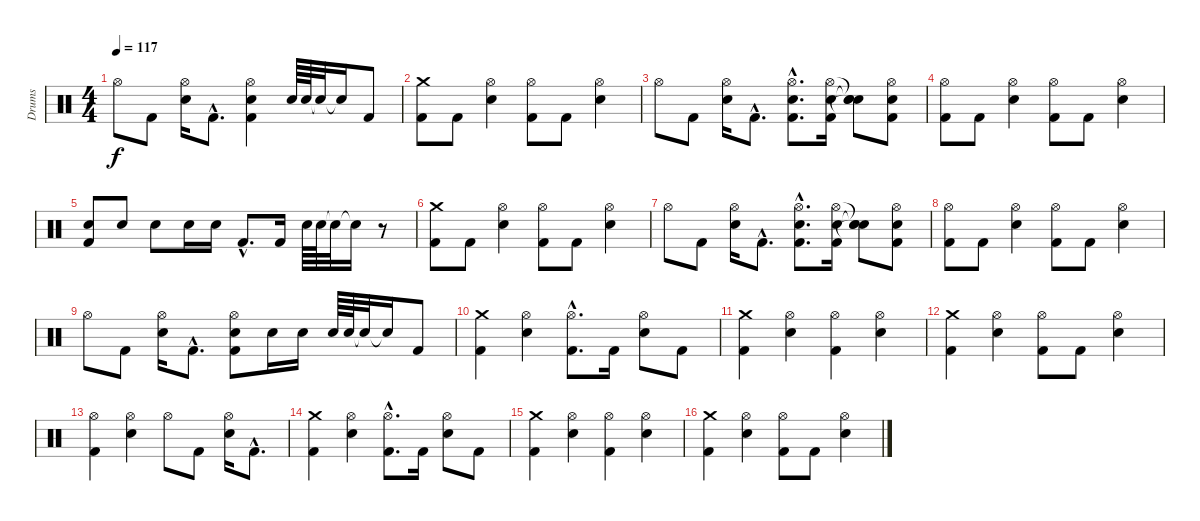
\track ("Drums" "Drums") {instrument percussion}
\staff {score}
\articulation defaults
\ts (4 4)
\tempo 117
\clef neutral
\ks c "Hi-Hat (open)".8{dy f} "Kick (hit) 2".8
("Hi-Hat (open)" "Snare (hit) 2").16 "Kick (hit) 2"{hac}.8{d} ("Hi-Hat (open)" "Snare (hit) 2" "Kick (hit) 2").4 "Snare (hit) 2".64 "Snare (hit) 2".64 "Snare (hit)"{t}.32 "Snare (hit)"{t}.16 "Kick (hit) 2".8 |
("Crash medium (hit)" "Kick (hit) 2").8 "Kick (hit) 2".8 ("Hi-Hat (open)" "Snare (hit) 2").4 ("Hi-Hat (open)" "Kick (hit) 2").8 "Kick (hit) 2".8 ("Hi-Hat (open)" "Snare (hit) 2").4 |
"Hi-Hat (open)".8 "Kick (hit) 2".8 ("Hi-Hat (open)" "Snare (hit) 2").16 "Kick (hit) 2"{hac}.8{d} ("Hi-Hat (open)"{hac} "Snare (hit) 2"{hac} "Kick (hit) 2"{hac}).8{d} ("Hi-Hat (open)" "Snare (hit) 2" "Kick (hit) 2").16 ("Snare (hit)"{t} "Snare (hit)"{t} "Snare (hit)"{t}).8 ("Hi-Hat (open)" "Snare (hit) 2" "Kick (hit) 2").8 |
("Hi-Hat (open)" "Kick (hit) 2").8 "Kick (hit) 2".8 ("Hi-Hat (open)" "Snare (hit) 2").4 ("Hi-Hat (open)" "Kick (hit) 2").8 "Kick (hit) 2".8 ("Hi-Hat (open)" "Snare (hit) 2").4 |
("Snare (hit) 2" "Kick (hit) 2").8 "Snare (hit) 2".8 "Snare (hit) 2".8 "Snare (hit) 2".16 "Snare (hit) 2".16 "Kick (hit) 2"{hac}.8{d} "Kick (hit) 2".16 "Snare (hit) 2".64 "Snare (hit) 2".64 "Snare (hit)"{t}.32 "Snare (hit)"{t}.16 r.8 |
("Crash medium (hit)" "Kick (hit) 2").8 "Kick (hit) 2".8 ("Hi-Hat (open)" "Snare (hit) 2").4 ("Hi-Hat (open)" "Kick (hit) 2").8 "Kick (hit) 2".8 ("Hi-Hat (open)" "Snare (hit) 2").4 |
"Hi-Hat (open)".8 "Kick (hit) 2".8 ("Hi-Hat (open)" "Snare (hit) 2").16 "Kick (hit) 2"{hac}.8{d} ("Hi-Hat (open)"{hac} "Snare (hit) 2"{hac} "Kick (hit) 2"{hac}).8{d} ("Hi-Hat (open)" "Snare (hit) 2" "Kick (hit) 2").16 ("Snare (hit)"{t} "Snare (hit)"{t} "Snare (hit)"{t}).8 ("Hi-Hat (open)" "Snare (hit) 2" "Kick (hit) 2").8 |
("Hi-Hat (open)" "Kick (hit) 2").8 "Kick (hit) 2".8 ("Hi-Hat (open)" "Snare (hit) 2").4 ("Hi-Hat (open)" "Kick (hit) 2").8 "Kick (hit) 2".8 ("Hi-Hat (open)" "Snare (hit) 2").4 |
"Hi-Hat (open)".8 "Kick (hit) 2".8 ("Hi-Hat (open)" "Snare (hit) 2").16 "Kick (hit) 2"{hac}.8{d} ("Hi-Hat (open)" "Snare (hit) 2" "Kick (hit) 2").8 "Snare (hit) 2".16 "Snare (hit) 2".16 "Snare (hit) 2".64 "Snare (hit) 2".64 "Snare (hit)"{t}.32 "Snare (hit)"{t}.16 "Kick (hit) 2".8 |
("Crash medium (hit)" "Kick (hit) 2").4 ("Hi-Hat (open)" "Snare (hit) 2").4 ("Hi-Hat (open)"{hac} "Kick (hit) 2"{hac}).8{d} "Kick (hit) 2".16 ("Hi-Hat (open)" "Snare (hit) 2").8 "Kick (hit) 2".8 |
("Crash medium (hit)" "Kick (hit) 2").4 ("Hi-Hat (open)" "Snare (hit) 2").4 ("Hi-Hat (open)" "Kick (hit) 2").4 ("Hi-Hat (open)" "Snare (hit) 2").4 |
("Crash medium (hit)" "Kick (hit) 2").4 ("Hi-Hat (open)" "Snare (hit) 2").4 ("Hi-Hat (open)" "Kick (hit) 2").8 "Kick (hit) 2".8 ("Hi-Hat (open)" "Snare (hit) 2").4 |
("Hi-Hat (open)" "Kick (hit) 2").4 ("Hi-Hat (open)" "Snare (hit) 2").4 "Hi-Hat (open)".8 "Kick (hit) 2".8 ("Hi-Hat (open)" "Snare (hit) 2").16 "Kick (hit) 2"{hac}.8{d} |
("Crash medium (hit)" "Kick (hit) 2").4 ("Hi-Hat (open)" "Snare (hit) 2").4 ("Hi-Hat (open)"{hac} "Kick (hit) 2"{hac}).8{d} "Kick (hit) 2".16 ("Hi-Hat (open)" "Snare (hit) 2").8 "Kick (hit) 2".8 |
("Crash medium (hit)" "Kick (hit) 2").4 ("Hi-Hat (open)" "Snare (hit) 2").4 ("Hi-Hat (open)" "Kick (hit) 2").4 ("Hi-Hat (open)" "Snare (hit) 2").4 |
("Crash medium (hit)" "Kick (hit) 2").4 ("Hi-Hat (open)" "Snare (hit) 2").4 ("Hi-Hat (open)" "Kick (hit) 2").8 "Kick (hit) 2".8 ("Hi-Hat (open)" "Snare (hit) 2").4
